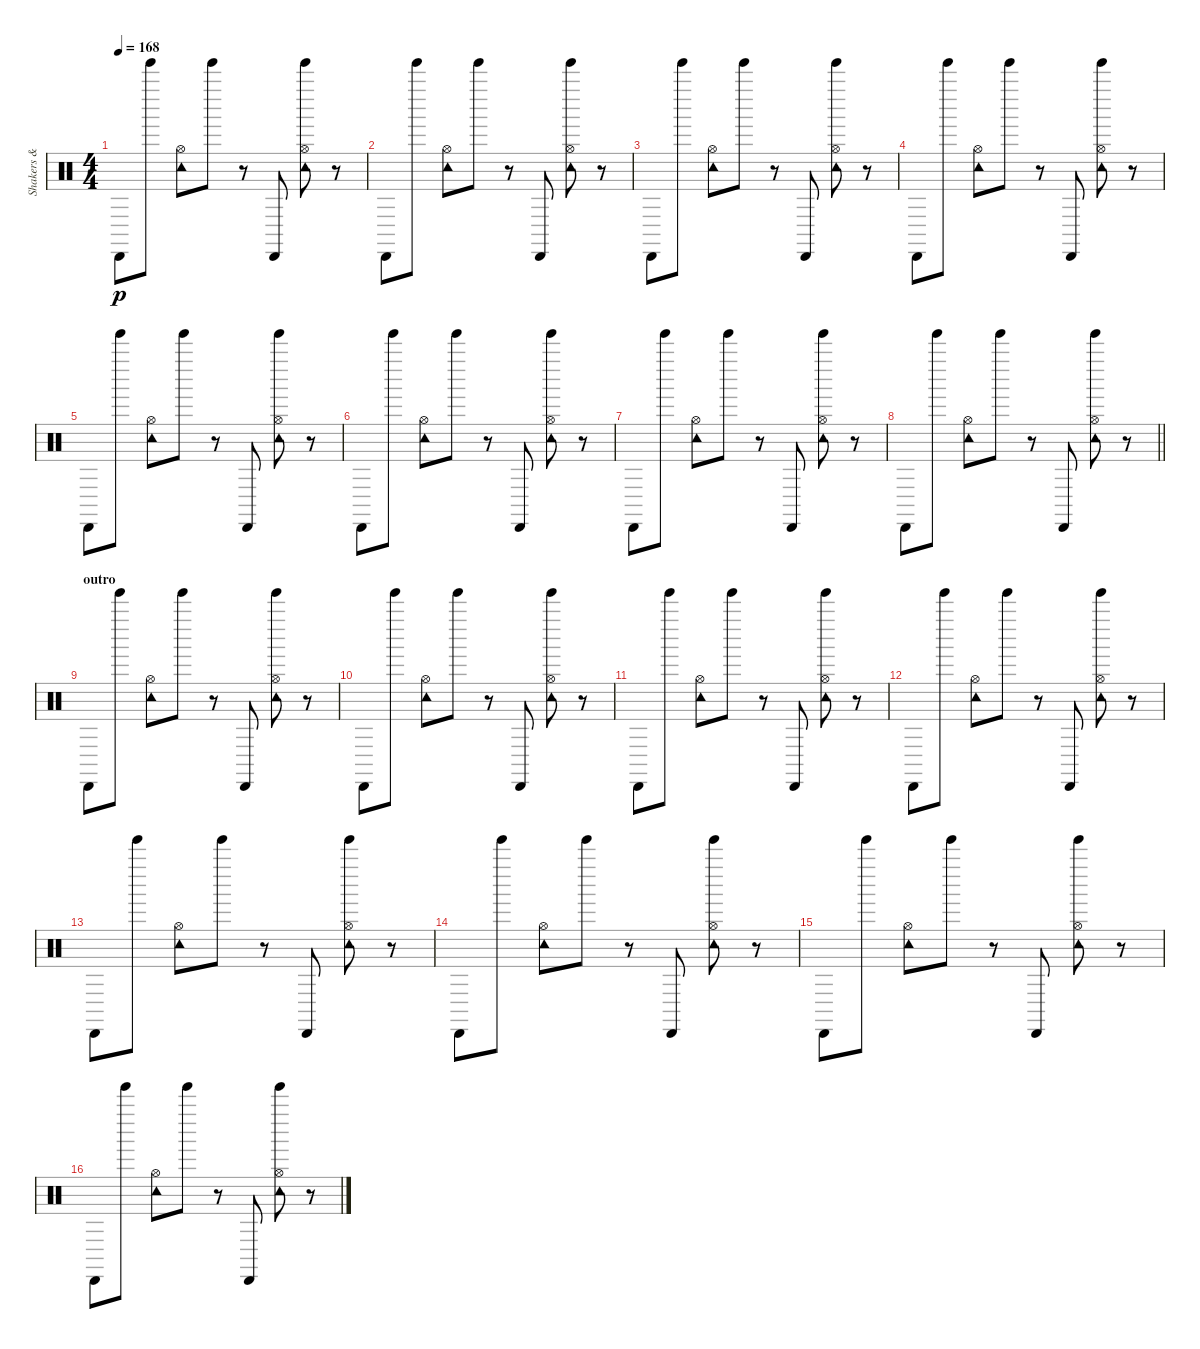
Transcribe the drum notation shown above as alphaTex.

\track ("Shakers & Effects" "Shakers & ") {instrument percussion}
\staff {score}
\articulation defaults
\ts (4 4)
\tempo 168
\clef neutral
\ks c "Cabasa (hit)".8{dy p} "Tinkle Bell (hit)".8
("Tambourine (hit)" "Hi-Hat (open)").8 "Tinkle Bell (hit)".8 r.8 "Cabasa (hit)".8 ("Tambourine (hit)" "Tinkle Bell (hit)" "Hi-Hat (open)").8 r.8 |
"Cabasa (hit)".8 "Tinkle Bell (hit)".8 ("Tambourine (hit)" "Hi-Hat (open)").8 "Tinkle Bell (hit)".8 r.8 "Cabasa (hit)".8 ("Tambourine (hit)" "Tinkle Bell (hit)" "Hi-Hat (open)").8 r.8 |
"Cabasa (hit)".8 "Tinkle Bell (hit)".8 ("Tambourine (hit)" "Hi-Hat (open)").8 "Tinkle Bell (hit)".8 r.8 "Cabasa (hit)".8 ("Tambourine (hit)" "Tinkle Bell (hit)" "Hi-Hat (open)").8 r.8 |
"Cabasa (hit)".8 "Tinkle Bell (hit)".8 ("Tambourine (hit)" "Hi-Hat (open)").8 "Tinkle Bell (hit)".8 r.8 "Cabasa (hit)".8 ("Tambourine (hit)" "Tinkle Bell (hit)" "Hi-Hat (open)").8 r.8 |
"Cabasa (hit)".8 "Tinkle Bell (hit)".8 ("Tambourine (hit)" "Hi-Hat (open)").8 "Tinkle Bell (hit)".8 r.8 "Cabasa (hit)".8 ("Tambourine (hit)" "Tinkle Bell (hit)" "Hi-Hat (open)").8 r.8 |
"Cabasa (hit)".8 "Tinkle Bell (hit)".8 ("Tambourine (hit)" "Hi-Hat (open)").8 "Tinkle Bell (hit)".8 r.8 "Cabasa (hit)".8 ("Tambourine (hit)" "Tinkle Bell (hit)" "Hi-Hat (open)").8 r.8 |
"Cabasa (hit)".8 "Tinkle Bell (hit)".8 ("Tambourine (hit)" "Hi-Hat (open)").8 "Tinkle Bell (hit)".8 r.8 "Cabasa (hit)".8 ("Tambourine (hit)" "Tinkle Bell (hit)" "Hi-Hat (open)").8 r.8 |
\barLineRight lightlight "Cabasa (hit)".8 "Tinkle Bell (hit)".8
("Tambourine (hit)" "Hi-Hat (open)").8 "Tinkle Bell (hit)".8 r.8 "Cabasa (hit)".8 ("Tambourine (hit)" "Tinkle Bell (hit)" "Hi-Hat (open)").8 r.8 |
\section ("" "outro")
"Cabasa (hit)".8 "Tinkle Bell (hit)".8 ("Tambourine (hit)" "Hi-Hat (open)").8 "Tinkle Bell (hit)".8 r.8 "Cabasa (hit)".8 ("Tambourine (hit)" "Tinkle Bell (hit)" "Hi-Hat (open)").8 r.8 |
"Cabasa (hit)".8 "Tinkle Bell (hit)".8 ("Tambourine (hit)" "Hi-Hat (open)").8 "Tinkle Bell (hit)".8 r.8 "Cabasa (hit)".8 ("Tambourine (hit)" "Tinkle Bell (hit)" "Hi-Hat (open)").8 r.8 |
"Cabasa (hit)".8 "Tinkle Bell (hit)".8 ("Tambourine (hit)" "Hi-Hat (open)").8 "Tinkle Bell (hit)".8 r.8 "Cabasa (hit)".8 ("Tambourine (hit)" "Tinkle Bell (hit)" "Hi-Hat (open)").8 r.8 |
"Cabasa (hit)".8 "Tinkle Bell (hit)".8 ("Tambourine (hit)" "Hi-Hat (open)").8 "Tinkle Bell (hit)".8 r.8 "Cabasa (hit)".8 ("Tambourine (hit)" "Tinkle Bell (hit)" "Hi-Hat (open)").8 r.8 |
"Cabasa (hit)".8 "Tinkle Bell (hit)".8 ("Tambourine (hit)" "Hi-Hat (open)").8 "Tinkle Bell (hit)".8 r.8 "Cabasa (hit)".8 ("Tambourine (hit)" "Tinkle Bell (hit)" "Hi-Hat (open)").8 r.8 |
"Cabasa (hit)".8 "Tinkle Bell (hit)".8 ("Tambourine (hit)" "Hi-Hat (open)").8 "Tinkle Bell (hit)".8 r.8 "Cabasa (hit)".8 ("Tambourine (hit)" "Tinkle Bell (hit)" "Hi-Hat (open)").8 r.8 |
"Cabasa (hit)".8 "Tinkle Bell (hit)".8 ("Tambourine (hit)" "Hi-Hat (open)").8 "Tinkle Bell (hit)".8 r.8 "Cabasa (hit)".8 ("Tambourine (hit)" "Tinkle Bell (hit)" "Hi-Hat (open)").8 r.8 |
"Cabasa (hit)".8 "Tinkle Bell (hit)".8 ("Tambourine (hit)" "Hi-Hat (open)").8 "Tinkle Bell (hit)".8 r.8 "Cabasa (hit)".8 ("Tambourine (hit)" "Tinkle Bell (hit)" "Hi-Hat (open)").8 r.8
